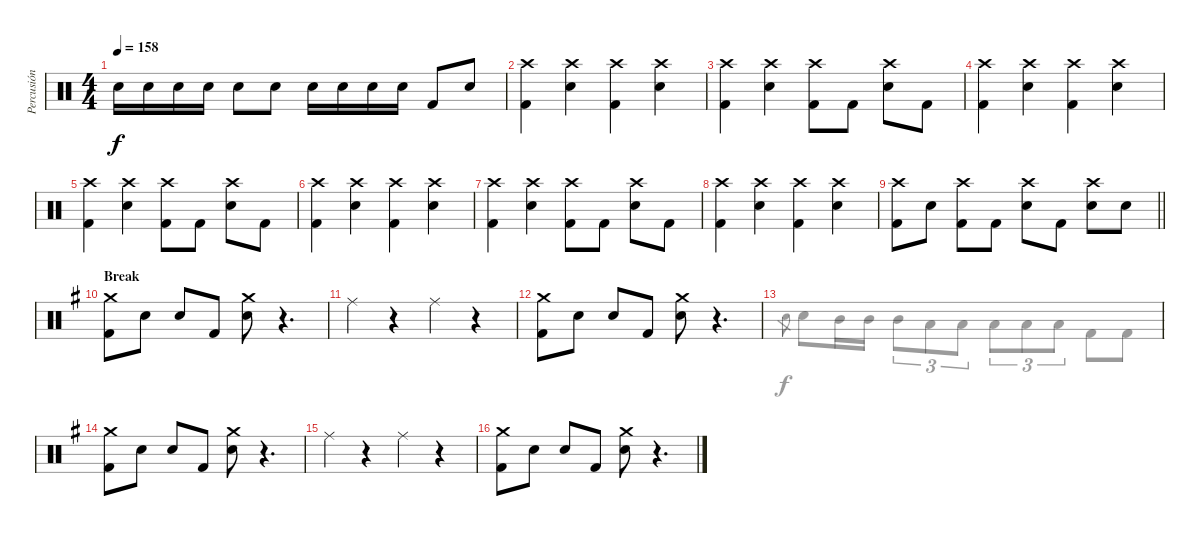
\track ("Percusión" "Percusión") {instrument percussion}
\staff {score}
\articulation defaults
\voice
\ts (4 4)
\tempo 158
\clef neutral
\ks c "Snare (hit) 2".16{dy f} "Snare (hit) 2".16 "Snare (hit) 2".16 "Snare (hit) 2".16 "Snare (hit) 2".8 "Snare (hit) 2".8 "Snare (hit) 2".16 "Snare (hit) 2".16 "Snare (hit) 2".16 "Snare (hit) 2".16 "Kick (hit) 2".8 "Snare (hit) 2".8
|
("Crash high (hit)" "Kick (hit) 2").4 ("Crash high (hit)" "Snare (hit) 2").4 ("Crash high (hit)" "Kick (hit) 2").4 ("Crash high (hit)" "Snare (hit) 2").4 |
("Crash high (hit)" "Kick (hit) 2").4 ("Crash high (hit)" "Snare (hit) 2").4 ("Crash high (hit)" "Kick (hit) 2").8 "Kick (hit) 2".8 ("Crash high (hit)" "Snare (hit) 2").8 "Kick (hit) 2".8 |
("Crash high (hit)" "Kick (hit) 2").4 ("Crash high (hit)" "Snare (hit) 2").4 ("Crash high (hit)" "Kick (hit) 2").4 ("Crash high (hit)" "Snare (hit) 2").4 |
("Crash high (hit)" "Kick (hit) 2").4 ("Crash high (hit)" "Snare (hit) 2").4 ("Crash high (hit)" "Kick (hit) 2").8 "Kick (hit) 2".8 ("Crash high (hit)" "Snare (hit) 2").8 "Kick (hit) 2".8 |
("Crash high (hit)" "Kick (hit) 2").4 ("Crash high (hit)" "Snare (hit) 2").4 ("Crash high (hit)" "Kick (hit) 2").4 ("Crash high (hit)" "Snare (hit) 2").4 |
("Crash high (hit)" "Kick (hit) 2").4 ("Crash high (hit)" "Snare (hit) 2").4 ("Crash high (hit)" "Kick (hit) 2").8 "Kick (hit) 2".8 ("Crash high (hit)" "Snare (hit) 2").8 "Kick (hit) 2".8 |
("Crash high (hit)" "Kick (hit) 2").4 ("Crash high (hit)" "Snare (hit) 2").4 ("Crash high (hit)" "Kick (hit) 2").4 ("Crash high (hit)" "Snare (hit) 2").4 |
\barLineRight lightlight
("Crash high (hit)" "Kick (hit) 2").8 "Snare (hit) 2".8 ("Crash high (hit)" "Kick (hit) 2").8 "Kick (hit) 2".8 ("Crash high (hit)" "Snare (hit) 2").8 "Kick (hit) 2".8 ("Crash high (hit)" "Snare (hit) 2").8 "Snare (hit) 2".8 |
\section ("" "Break")
\ks g
("Crash medium (hit)" "Kick (hit) 2").8 "Snare (hit) 2".8 "Snare (hit) 2".8 "Kick (hit) 2".8 ("Crash medium (hit)" "Snare (hit) 2").8 r.4{d} |
"Ride (middle)".4 r.4 "Ride (middle)".4 r.4 |
("Crash medium (hit)" "Kick (hit) 2").8 "Snare (hit) 2".8 "Snare (hit) 2".8 "Kick (hit) 2".8 ("Crash medium (hit)" "Snare (hit) 2").8 r.4{d} |
|
("Crash medium (hit)" "Kick (hit) 2").8 "Snare (hit) 2".8 "Snare (hit) 2".8 "Kick (hit) 2".8 ("Crash medium (hit)" "Snare (hit) 2").8 r.4{d} |
"Ride (middle)".4 r.4 "Ride (middle)".4 r.4 |
("Crash medium (hit)" "Kick (hit) 2").8 "Snare (hit) 2".8 "Snare (hit) 2".8 "Kick (hit) 2".8 ("Crash medium (hit)" "Snare (hit) 2").8 r.4{d}
\voice
\clef neutral
\ottava regular
\simile none
\ks c
|
|
|
|
|
|
|
|
\barLineRight lightlight
|
\ks g
|
|
|
"Snare (hit) 2".8{gr} "Snare (hit) 2".8 "Mid Tom (hit)".16 "Mid Tom (hit)".16 "Mid Tom (hit)".8{tu (3 2)} "Low Tom (hit)".8{tu (3 2)} "Low Tom (hit)".8{tu (3 2)} "Low Floor Tom (hit)".8{tu (3 2)} "Low Floor Tom (hit)".8{tu (3 2)} "Low Floor Tom (hit)".8{tu (3 2)} "Kick (hit) 2".8 "Kick (hit) 2".8 |
|
|
